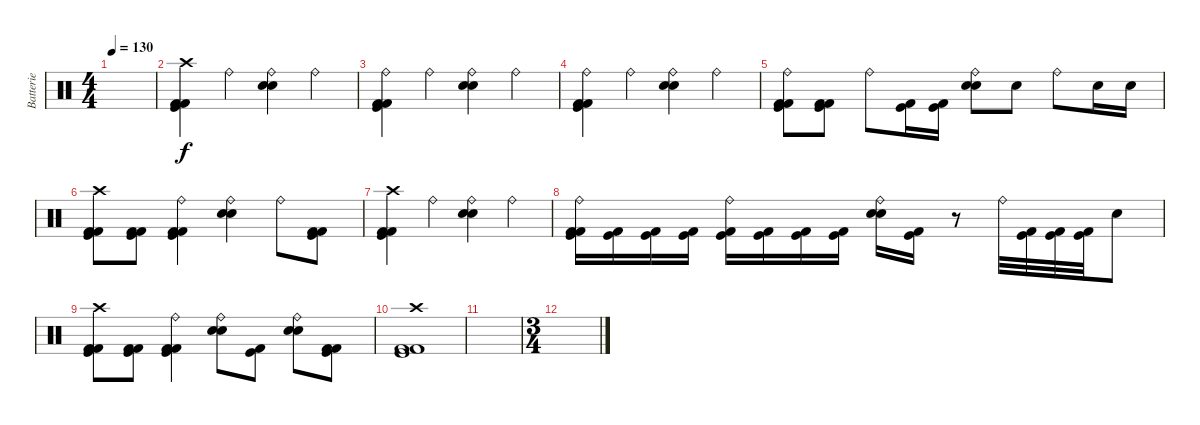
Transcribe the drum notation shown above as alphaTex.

\track ("Batterie" "Batterie") {instrument percussion}
\staff {score}
\articulation defaults
\ts (4 4)
\tempo 130
\clef neutral
\ks c
|
("Crash high (hit)" "Kick (hit) 2" "Kick (hit) 2" "Kick (hit)").4 "Ride (bell)".4 ("Ride (bell)" "Electric Snare (hit)" "Electric Snare (hit)").4 "Ride (bell)".4 |
("Ride (bell)" "Kick (hit) 2" "Kick (hit) 2" "Kick (hit)").4 "Ride (bell)".4 ("Ride (bell)" "Electric Snare (hit)" "Electric Snare (hit)").4 "Ride (bell)".4 |
("Ride (bell)" "Kick (hit) 2" "Kick (hit) 2" "Kick (hit)").4 "Ride (bell)".4 ("Ride (bell)" "Electric Snare (hit)" "Electric Snare (hit)").4 "Ride (bell)".4 |
("Ride (bell)" "Kick (hit) 2" "Kick (hit) 2" "Kick (hit)").8 ("Kick (hit) 2" "Kick (hit) 2" "Kick (hit)").8 "Ride (bell)".8 ("Kick (hit) 2" "Kick (hit)").16 ("Kick (hit)" "Kick (hit) 2").16 ("Ride (bell)" "Electric Snare (hit)" "Electric Snare (hit)").8 "Electric Snare (hit)".8 "Ride (bell)".8 "Electric Snare (hit)".16 "Electric Snare (hit)".16 |
("Crash high (hit)" "Kick (hit) 2" "Kick (hit) 2" "Kick (hit)").8 ("Kick (hit)" "Kick (hit) 2" "Kick (hit) 2").8 ("Ride (bell)" "Kick (hit) 2" "Kick (hit) 2" "Kick (hit)").4 ("Ride (bell)" "Electric Snare (hit)" "Electric Snare (hit)").4 "Ride (bell)".8 ("Kick (hit) 2" "Kick (hit)" "Kick (hit) 2").8 |
("Crash high (hit)" "Kick (hit) 2" "Kick (hit) 2" "Kick (hit)").4 "Ride (bell)".4 ("Ride (bell)" "Electric Snare (hit)" "Electric Snare (hit)").4 "Ride (bell)".4 |
("Ride (bell)" "Kick (hit) 2" "Kick (hit) 2" "Kick (hit)").16 ("Kick (hit)" "Kick (hit) 2").16 ("Kick (hit) 2" "Kick (hit)").16 ("Kick (hit) 2" "Kick (hit)").16 ("Ride (bell)" "Kick (hit) 2" "Kick (hit)").16 ("Kick (hit)" "Kick (hit) 2").16 ("Kick (hit)" "Kick (hit) 2").16 ("Kick (hit)" "Kick (hit) 2").16 ("Ride (bell)" "Electric Snare (hit)" "Electric Snare (hit)").16 ("Kick (hit)" "Kick (hit) 2").16 r.8 "Ride (bell)".32 ("Kick (hit) 2" "Kick (hit)").32 ("Kick (hit) 2" "Kick (hit)").32 ("Kick (hit)" "Kick (hit) 2").32 "Electric Snare (hit)".8 |
("Crash high (hit)" "Kick (hit) 2" "Kick (hit) 2" "Kick (hit)").8 ("Kick (hit)" "Kick (hit) 2" "Kick (hit) 2").8 ("Ride (bell)" "Kick (hit) 2" "Kick (hit) 2" "Kick (hit)").4 ("Ride (bell)" "Electric Snare (hit)" "Electric Snare (hit)").8 ("Kick (hit) 2" "Kick (hit)").8 ("Ride (bell)" "Electric Snare (hit)" "Electric Snare (hit)").8 ("Kick (hit) 2" "Kick (hit)" "Kick (hit) 2").8 |
("Crash high (hit)" "Kick (hit) 2" "Kick (hit)" "Kick (hit) 2").1 |
|
\ts (3 4)
